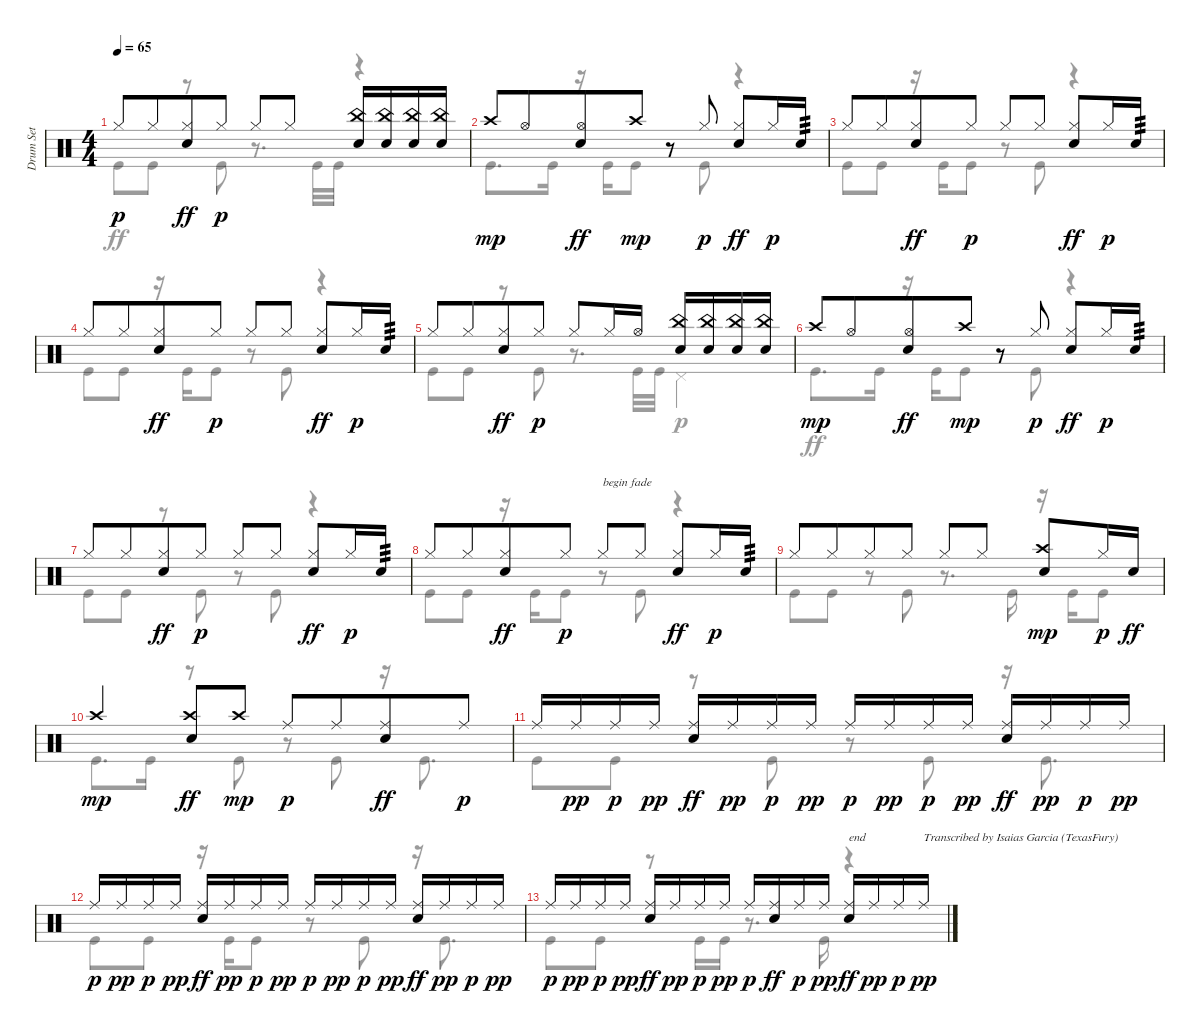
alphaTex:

\track ("Drum Set" "Drum Set") {instrument percussion}
\staff {score}
\articulation defaults
\voice
\ts (4 4)
\tempo 65
\clef neutral
\ks c "Hi-Hat (closed)".8{dy p} "Hi-Hat (closed)".8{beam merge}
("Hi-Hat (closed)" "Electric Snare (hit)").8{dy ff} "Hi-Hat (closed)".8{dy p} "Hi-Hat (closed)".8 "Hi-Hat (closed)".8 ("Electric Snare (hit)" "China (hit)").16 ("Electric Snare (hit)" "China (hit)").16 ("Electric Snare (hit)" "China (hit)").16 ("Electric Snare (hit)" "China (hit)").16 |
"Crash high (hit)".8{dy mp} "Hi-Hat (open)".8{beam merge} ("Hi-Hat (open)" "Electric Snare (hit)").8{dy ff} "Crash high (hit)".8{dy mp} r.8 "Hi-Hat (closed)".8{dy p} ("Hi-Hat (closed)" "Electric Snare (hit)").8{dy ff} "Hi-Hat (closed)".16{dy p} "Electric Snare (hit)".16{tp 3} |
"Hi-Hat (closed)".8 "Hi-Hat (closed)".8{beam merge} ("Hi-Hat (closed)" "Electric Snare (hit)").8{dy ff} "Hi-Hat (closed)".8{dy p} "Hi-Hat (closed)".8 "Hi-Hat (closed)".8{beam split} ("Hi-Hat (closed)" "Electric Snare (hit)").8{dy ff} "Hi-Hat (closed)".16{dy p} "Electric Snare (hit)".16{tp 3} |
"Hi-Hat (closed)".8 "Hi-Hat (closed)".8{beam merge} ("Hi-Hat (closed)" "Electric Snare (hit)").8{dy ff} "Hi-Hat (closed)".8{dy p} "Hi-Hat (closed)".8 "Hi-Hat (closed)".8{beam split} ("Hi-Hat (closed)" "Electric Snare (hit)").8{dy ff} "Hi-Hat (closed)".16{dy p} "Electric Snare (hit)".16{tp 3} |
"Hi-Hat (closed)".8 "Hi-Hat (closed)".8{beam merge} ("Hi-Hat (closed)" "Electric Snare (hit)").8{dy ff} "Hi-Hat (closed)".8{dy p} "Hi-Hat (closed)".8 "Hi-Hat (closed)".16 "Hi-Hat (open)".16 ("Electric Snare (hit)" "China (hit)").16 ("Electric Snare (hit)" "China (hit)").16 ("Electric Snare (hit)" "China (hit)").16 ("Electric Snare (hit)" "China (hit)").16 |
"Crash high (hit)".8{dy mp} "Hi-Hat (open)".8{beam merge} ("Hi-Hat (open)" "Electric Snare (hit)").8{dy ff} "Crash high (hit)".8{dy mp} r.8 "Hi-Hat (closed)".8{dy p} ("Hi-Hat (closed)" "Electric Snare (hit)").8{dy ff} "Hi-Hat (closed)".16{dy p} "Electric Snare (hit)".16{tp 3} |
"Hi-Hat (closed)".8 "Hi-Hat (closed)".8{beam merge} ("Hi-Hat (closed)" "Electric Snare (hit)").8{dy ff} "Hi-Hat (closed)".8{dy p} "Hi-Hat (closed)".8 "Hi-Hat (closed)".8{beam split} ("Hi-Hat (closed)" "Electric Snare (hit)").8{dy ff} "Hi-Hat (closed)".16{dy p} "Electric Snare (hit)".16{tp 3} |
"Hi-Hat (closed)".8 "Hi-Hat (closed)".8{beam merge} ("Hi-Hat (closed)" "Electric Snare (hit)").8{dy ff} "Hi-Hat (closed)".8{dy p} "Hi-Hat (closed)".8{txt "begin fade" volume 6} "Hi-Hat (closed)".8{beam split} ("Hi-Hat (closed)" "Electric Snare (hit)").8{dy ff} "Hi-Hat (closed)".16{dy p} "Electric Snare (hit)".16{tp 3} |
"Hi-Hat (closed)".8 "Hi-Hat (closed)".8{beam merge} "Hi-Hat (closed)".8 "Hi-Hat (closed)".8 "Hi-Hat (closed)".8 "Hi-Hat (closed)".8 ("Electric Snare (hit)" "Crash high (hit)").8{dy mp} "Hi-Hat (closed)".16{dy p} "Electric Snare (hit)".16{dy ff} |
"Crash high (hit)".4{dy mp} ("Crash high (hit)" "Electric Snare (hit)").8{dy ff} "Crash high (hit)".8{dy mp} "Ride (middle)".8{dy p} "Ride (middle)".8{beam merge} ("Ride (middle)" "Electric Snare (hit)").8{dy ff} "Ride (middle)".8{dy p} |
"Ride (middle)".16 "Ride (middle)".16{dy pp} "Ride (middle)".16{dy p} "Ride (middle)".16{dy pp} ("Ride (middle)" "Electric Snare (hit)").16{dy ff volume 0} "Ride (middle)".16{dy pp} "Ride (middle)".16{dy p} "Ride (middle)".16{dy pp} "Ride (middle)".16{dy p} "Ride (middle)".16{dy pp} "Ride (middle)".16{dy p} "Ride (middle)".16{dy pp} ("Ride (middle)" "Electric Snare (hit)").16{dy ff} "Ride (middle)".16{dy pp} "Ride (middle)".16{dy p} "Ride (middle)".16{dy pp} |
"Ride (middle)".16{dy p} "Ride (middle)".16{dy pp} "Ride (middle)".16{dy p} "Ride (middle)".16{dy pp} ("Ride (middle)" "Electric Snare (hit)").16{dy ff} "Ride (middle)".16{dy pp} "Ride (middle)".16{dy p} "Ride (middle)".16{dy pp} "Ride (middle)".16{dy p} "Ride (middle)".16{dy pp} "Ride (middle)".16{dy p} "Ride (middle)".16{dy pp} ("Ride (middle)" "Electric Snare (hit)").16{dy ff} "Ride (middle)".16{dy pp} "Ride (middle)".16{dy p} "Ride (middle)".16{dy pp} |
"Ride (middle)".16{dy p} "Ride (middle)".16{dy pp} "Ride (middle)".16{dy p} "Ride (middle)".16{dy pp} ("Ride (middle)" "Electric Snare (hit)").16{dy ff} "Ride (middle)".16{dy pp} "Ride (middle)".16{dy p} "Ride (middle)".16{dy pp} "Ride (middle)".16{dy p} ("Ride (middle)" "Electric Snare (hit)").16{dy ff} "Ride (middle)".16{dy p} "Ride (middle)".16{dy pp} ("Ride (middle)" "Electric Snare (hit)").16{txt "end" dy ff} "Ride (middle)".16{dy pp} "Ride (middle)".16{dy p} "Ride (middle)".16{txt "Transcribed by Isaias Garcia (TexasFury)" dy pp}
\voice
\clef neutral
\ottava regular
\simile none
\ks c "Kick (hit)".8{dy ff} "Kick (hit)".8
r.8 "Kick (hit)".8 r.8{d} "Kick (hit)".32 "Kick (hit)".32 r.4 |
"Kick (hit)".8{d} "Kick (hit)".16 r.16 "Kick (hit)".16 "Kick (hit)".8 r.8 "Kick (hit)".8 r.4 |
"Kick (hit)".8 "Kick (hit)".8 r.16 "Kick (hit)".16 "Kick (hit)".8 r.8 "Kick (hit)".8 r.4 |
"Kick (hit)".8 "Kick (hit)".8 r.16 "Kick (hit)".16 "Kick (hit)".8 r.8 "Kick (hit)".8 r.4 |
"Kick (hit)".8 "Kick (hit)".8 r.8 "Kick (hit)".8 r.8{d} "Kick (hit)".32 "Kick (hit)".32 "Pedal Hi-Hat (hit)".4{dy p} |
"Kick (hit)".8{d dy ff} "Kick (hit)".16 r.16 "Kick (hit)".16 "Kick (hit)".8 r.8 "Kick (hit)".8 r.4 |
"Kick (hit)".8 "Kick (hit)".8 r.8 "Kick (hit)".8 r.8 "Kick (hit)".8 r.4 |
"Kick (hit)".8 "Kick (hit)".8 r.16 "Kick (hit)".16 "Kick (hit)".8 r.8 "Kick (hit)".8 r.4 |
"Kick (hit)".8 "Kick (hit)".8 r.8 "Kick (hit)".8 r.8{d} "Kick (hit)".16 r.16 "Kick (hit)".16 "Kick (hit)".8 |
"Kick (hit)".8{d} "Kick (hit)".16 r.8 "Kick (hit)".8 r.8 "Kick (hit)".8 r.16 "Kick (hit)".8{d} |
"Kick (hit)".8 "Kick (hit)".8 r.8 "Kick (hit)".8 r.8 "Kick (hit)".8 r.16 "Kick (hit)".8{d} |
"Kick (hit)".8 "Kick (hit)".8 r.16 "Kick (hit)".16 "Kick (hit)".8 r.8 "Kick (hit)".8 r.16 "Kick (hit)".8{d} |
"Kick (hit)".8 "Kick (hit)".8 r.8 "Kick (hit)".16 "Kick (hit)".16 r.8{d} "Kick (hit)".16 r.4
